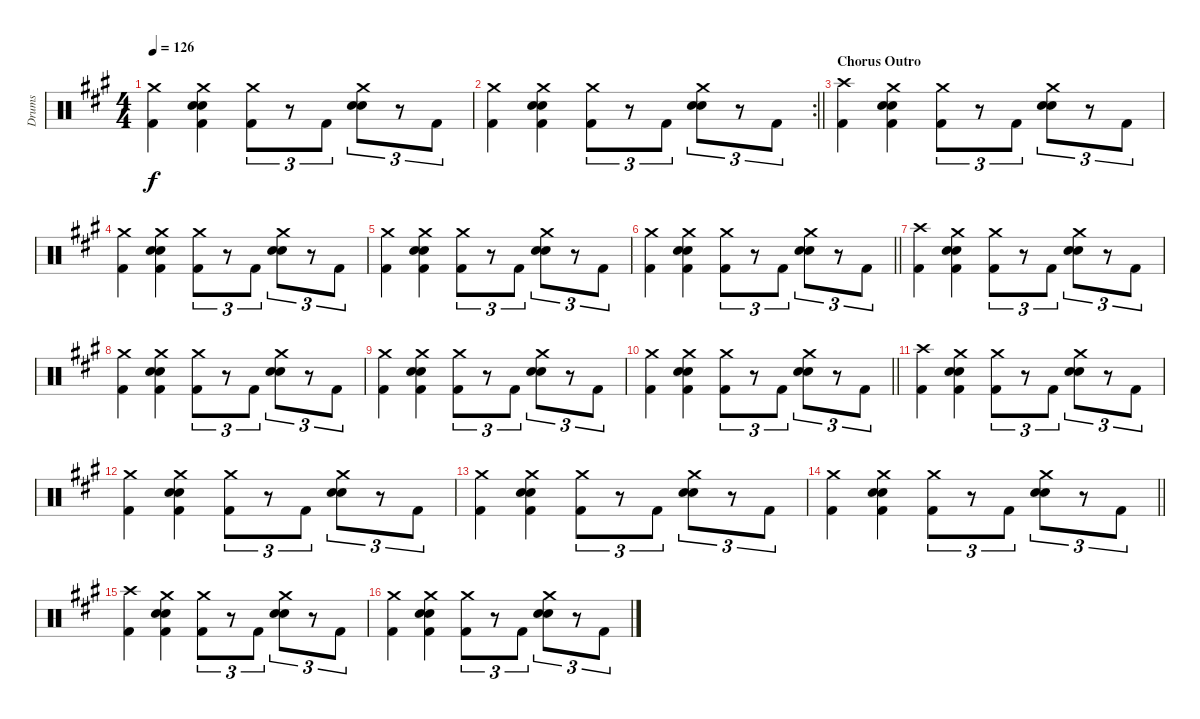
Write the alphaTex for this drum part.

\track ("Drums" "Drums") {instrument percussion}
\staff {score}
\articulation defaults
\ts (4 4)
\tempo 126
\clef neutral
\ks a
("Crash medium (hit)" "Kick (hit) 2").4{dy f} ("Crash medium (hit)" "Electric Snare (hit)" "Hand Clap (hit)" "Kick (hit) 2").4 ("Crash medium (hit)" "Kick (hit) 2").8{tu (3 2)} r.8{tu (3 2)} "Kick (hit) 2".8{tu (3 2)} ("Crash medium (hit)" "Electric Snare (hit)" "Hand Clap (hit)").8{tu (3 2)} r.8{tu (3 2)} "Kick (hit) 2".8{tu (3 2)} |
\rc 2
\barLineRight lightlight
("Crash medium (hit)" "Kick (hit) 2").4 ("Crash medium (hit)" "Electric Snare (hit)" "Hand Clap (hit)" "Kick (hit) 2").4 ("Crash medium (hit)" "Kick (hit) 2").8{tu (3 2)} r.8{tu (3 2)} "Kick (hit) 2".8{tu (3 2)} ("Crash medium (hit)" "Electric Snare (hit)" "Hand Clap (hit)").8{tu (3 2)} r.8{tu (3 2)} "Kick (hit) 2".8{tu (3 2)} |
\section ("" "Chorus Outro")
("Crash high (hit)" "Kick (hit) 2").4 ("Crash medium (hit)" "Electric Snare (hit)" "Hand Clap (hit)" "Kick (hit) 2").4 ("Crash medium (hit)" "Kick (hit) 2").8{tu (3 2)} r.8{tu (3 2)} "Kick (hit) 2".8{tu (3 2)} ("Crash medium (hit)" "Electric Snare (hit)" "Hand Clap (hit)").8{tu (3 2)} r.8{tu (3 2)} "Kick (hit) 2".8{tu (3 2)} |
("Crash medium (hit)" "Kick (hit) 2").4 ("Crash medium (hit)" "Electric Snare (hit)" "Hand Clap (hit)" "Kick (hit) 2").4 ("Crash medium (hit)" "Kick (hit) 2").8{tu (3 2)} r.8{tu (3 2)} "Kick (hit) 2".8{tu (3 2)} ("Crash medium (hit)" "Electric Snare (hit)" "Hand Clap (hit)").8{tu (3 2)} r.8{tu (3 2)} "Kick (hit) 2".8{tu (3 2)} |
("Crash medium (hit)" "Kick (hit) 2").4 ("Crash medium (hit)" "Electric Snare (hit)" "Hand Clap (hit)" "Kick (hit) 2").4 ("Crash medium (hit)" "Kick (hit) 2").8{tu (3 2)} r.8{tu (3 2)} "Kick (hit) 2".8{tu (3 2)} ("Crash medium (hit)" "Electric Snare (hit)" "Hand Clap (hit)").8{tu (3 2)} r.8{tu (3 2)} "Kick (hit) 2".8{tu (3 2)} |
\barLineRight lightlight
("Crash medium (hit)" "Kick (hit) 2").4 ("Crash medium (hit)" "Electric Snare (hit)" "Hand Clap (hit)" "Kick (hit) 2").4 ("Crash medium (hit)" "Kick (hit) 2").8{tu (3 2)} r.8{tu (3 2)} "Kick (hit) 2".8{tu (3 2)} ("Crash medium (hit)" "Electric Snare (hit)" "Hand Clap (hit)").8{tu (3 2)} r.8{tu (3 2)} "Kick (hit) 2".8{tu (3 2)} |
("Crash high (hit)" "Kick (hit) 2").4 ("Crash medium (hit)" "Electric Snare (hit)" "Hand Clap (hit)" "Kick (hit) 2").4 ("Crash medium (hit)" "Kick (hit) 2").8{tu (3 2)} r.8{tu (3 2)} "Kick (hit) 2".8{tu (3 2)} ("Crash medium (hit)" "Electric Snare (hit)" "Hand Clap (hit)").8{tu (3 2)} r.8{tu (3 2)} "Kick (hit) 2".8{tu (3 2)} |
("Crash medium (hit)" "Kick (hit) 2").4 ("Crash medium (hit)" "Electric Snare (hit)" "Hand Clap (hit)" "Kick (hit) 2").4 ("Crash medium (hit)" "Kick (hit) 2").8{tu (3 2)} r.8{tu (3 2)} "Kick (hit) 2".8{tu (3 2)} ("Crash medium (hit)" "Electric Snare (hit)" "Hand Clap (hit)").8{tu (3 2)} r.8{tu (3 2)} "Kick (hit) 2".8{tu (3 2)} |
("Crash medium (hit)" "Kick (hit) 2").4 ("Crash medium (hit)" "Electric Snare (hit)" "Hand Clap (hit)" "Kick (hit) 2").4 ("Crash medium (hit)" "Kick (hit) 2").8{tu (3 2)} r.8{tu (3 2)} "Kick (hit) 2".8{tu (3 2)} ("Crash medium (hit)" "Electric Snare (hit)" "Hand Clap (hit)").8{tu (3 2)} r.8{tu (3 2)} "Kick (hit) 2".8{tu (3 2)} |
\barLineRight lightlight
("Crash medium (hit)" "Kick (hit) 2").4 ("Crash medium (hit)" "Electric Snare (hit)" "Hand Clap (hit)" "Kick (hit) 2").4 ("Crash medium (hit)" "Kick (hit) 2").8{tu (3 2)} r.8{tu (3 2)} "Kick (hit) 2".8{tu (3 2)} ("Crash medium (hit)" "Electric Snare (hit)" "Hand Clap (hit)").8{tu (3 2)} r.8{tu (3 2)} "Kick (hit) 2".8{tu (3 2)} |
("Crash high (hit)" "Kick (hit) 2").4 ("Crash medium (hit)" "Electric Snare (hit)" "Hand Clap (hit)" "Kick (hit) 2").4 ("Crash medium (hit)" "Kick (hit) 2").8{tu (3 2)} r.8{tu (3 2)} "Kick (hit) 2".8{tu (3 2)} ("Crash medium (hit)" "Electric Snare (hit)" "Hand Clap (hit)").8{tu (3 2)} r.8{tu (3 2)} "Kick (hit) 2".8{tu (3 2)} |
("Crash medium (hit)" "Kick (hit) 2").4 ("Crash medium (hit)" "Electric Snare (hit)" "Hand Clap (hit)" "Kick (hit) 2").4 ("Crash medium (hit)" "Kick (hit) 2").8{tu (3 2)} r.8{tu (3 2)} "Kick (hit) 2".8{tu (3 2)} ("Crash medium (hit)" "Electric Snare (hit)" "Hand Clap (hit)").8{tu (3 2)} r.8{tu (3 2)} "Kick (hit) 2".8{tu (3 2)} |
("Crash medium (hit)" "Kick (hit) 2").4 ("Crash medium (hit)" "Electric Snare (hit)" "Hand Clap (hit)" "Kick (hit) 2").4 ("Crash medium (hit)" "Kick (hit) 2").8{tu (3 2)} r.8{tu (3 2)} "Kick (hit) 2".8{tu (3 2)} ("Crash medium (hit)" "Electric Snare (hit)" "Hand Clap (hit)").8{tu (3 2)} r.8{tu (3 2)} "Kick (hit) 2".8{tu (3 2)} |
\barLineRight lightlight
("Crash medium (hit)" "Kick (hit) 2").4 ("Crash medium (hit)" "Electric Snare (hit)" "Hand Clap (hit)" "Kick (hit) 2").4 ("Crash medium (hit)" "Kick (hit) 2").8{tu (3 2)} r.8{tu (3 2)} "Kick (hit) 2".8{tu (3 2)} ("Crash medium (hit)" "Electric Snare (hit)" "Hand Clap (hit)").8{tu (3 2)} r.8{tu (3 2)} "Kick (hit) 2".8{tu (3 2)} |
("Crash high (hit)" "Kick (hit) 2").4 ("Crash medium (hit)" "Electric Snare (hit)" "Hand Clap (hit)" "Kick (hit) 2").4 ("Crash medium (hit)" "Kick (hit) 2").8{tu (3 2)} r.8{tu (3 2)} "Kick (hit) 2".8{tu (3 2)} ("Crash medium (hit)" "Electric Snare (hit)" "Hand Clap (hit)").8{tu (3 2)} r.8{tu (3 2)} "Kick (hit) 2".8{tu (3 2)} |
("Crash medium (hit)" "Kick (hit) 2").4 ("Crash medium (hit)" "Electric Snare (hit)" "Hand Clap (hit)" "Kick (hit) 2").4 ("Crash medium (hit)" "Kick (hit) 2").8{tu (3 2)} r.8{tu (3 2)} "Kick (hit) 2".8{tu (3 2)} ("Crash medium (hit)" "Electric Snare (hit)" "Hand Clap (hit)").8{tu (3 2)} r.8{tu (3 2)} "Kick (hit) 2".8{tu (3 2)}
